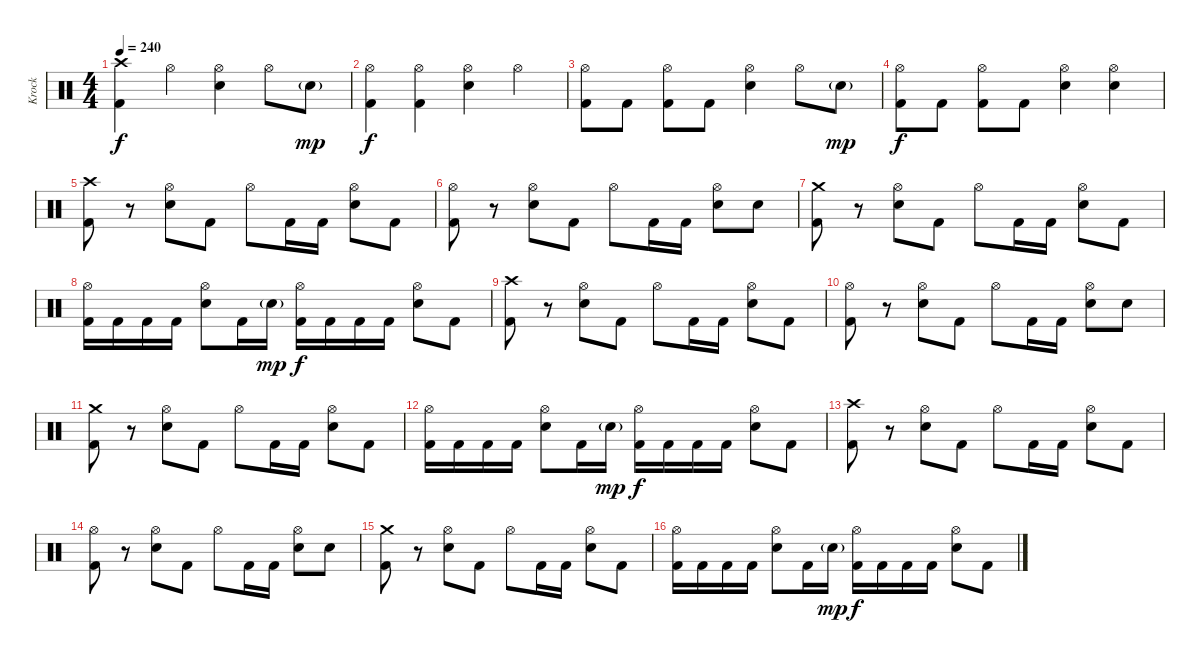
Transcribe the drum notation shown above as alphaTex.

\track ("Krock" "Krock") {instrument percussion}
\staff {score}
\articulation defaults
\ts (4 4)
\tempo 240
\clef neutral
\ks c
("Kick (hit) 2" "Crash high (hit)").4{dy f} "Hi-Hat (open)".4 ("Electric Snare (hit)" "Hi-Hat (open)").4 "Hi-Hat (open)".8 "Electric Snare (hit)"{g}.8{dy mp} |
("Kick (hit) 2" "Hi-Hat (open)").4{dy f} ("Kick (hit) 2" "Hi-Hat (open)").4 ("Electric Snare (hit)" "Hi-Hat (open)").4 "Hi-Hat (open)".4 |
("Kick (hit) 2" "Hi-Hat (open)").8 "Kick (hit) 2".8 ("Kick (hit) 2" "Hi-Hat (open)").8 "Kick (hit) 2".8 ("Electric Snare (hit)" "Hi-Hat (open)").4 "Hi-Hat (open)".8 "Electric Snare (hit)"{g}.8{dy mp} |
("Kick (hit) 2" "Hi-Hat (open)").8{dy f} "Kick (hit) 2".8 ("Kick (hit) 2" "Hi-Hat (open)").8 "Kick (hit) 2".8 ("Electric Snare (hit)" "Hi-Hat (open)").4 ("Electric Snare (hit)" "Hi-Hat (open)").4 |
("Kick (hit) 2" "Crash high (hit)").8 r.8 ("Electric Snare (hit)" "Hi-Hat (open)").8 "Kick (hit) 2".8 "Hi-Hat (open)".8 "Kick (hit) 2".16 "Kick (hit) 2".16 ("Electric Snare (hit)" "Hi-Hat (open)").8 "Kick (hit) 2".8 |
("Kick (hit) 2" "Hi-Hat (open)").8 r.8 ("Electric Snare (hit)" "Hi-Hat (open)").8 "Kick (hit) 2".8 "Hi-Hat (open)".8 "Kick (hit) 2".16 "Kick (hit) 2".16 ("Electric Snare (hit)" "Hi-Hat (open)").8 "Electric Snare (hit)".8 |
("Kick (hit) 2" "Crash medium (hit)").8 r.8 ("Electric Snare (hit)" "Hi-Hat (open)").8 "Kick (hit) 2".8 "Hi-Hat (open)".8 "Kick (hit) 2".16 "Kick (hit) 2".16 ("Electric Snare (hit)" "Hi-Hat (open)").8 "Kick (hit) 2".8 |
("Kick (hit) 2" "Hi-Hat (open)").16 "Kick (hit) 2".16 "Kick (hit) 2".16 "Kick (hit) 2".16 ("Electric Snare (hit)" "Hi-Hat (open)").8 "Kick (hit) 2".16 "Electric Snare (hit)"{g}.16{dy mp} ("Kick (hit) 2" "Hi-Hat (open)").16{dy f} "Kick (hit) 2".16 "Kick (hit) 2".16 "Kick (hit) 2".16 ("Electric Snare (hit)" "Hi-Hat (open)").8 "Kick (hit) 2".8 |
("Kick (hit) 2" "Crash high (hit)").8 r.8 ("Electric Snare (hit)" "Hi-Hat (open)").8 "Kick (hit) 2".8 "Hi-Hat (open)".8 "Kick (hit) 2".16 "Kick (hit) 2".16 ("Electric Snare (hit)" "Hi-Hat (open)").8 "Kick (hit) 2".8 |
("Kick (hit) 2" "Hi-Hat (open)").8 r.8 ("Electric Snare (hit)" "Hi-Hat (open)").8 "Kick (hit) 2".8 "Hi-Hat (open)".8 "Kick (hit) 2".16 "Kick (hit) 2".16 ("Electric Snare (hit)" "Hi-Hat (open)").8 "Electric Snare (hit)".8 |
("Kick (hit) 2" "Crash medium (hit)").8 r.8 ("Electric Snare (hit)" "Hi-Hat (open)").8 "Kick (hit) 2".8 "Hi-Hat (open)".8 "Kick (hit) 2".16 "Kick (hit) 2".16 ("Electric Snare (hit)" "Hi-Hat (open)").8 "Kick (hit) 2".8 |
("Kick (hit) 2" "Hi-Hat (open)").16 "Kick (hit) 2".16 "Kick (hit) 2".16 "Kick (hit) 2".16 ("Electric Snare (hit)" "Hi-Hat (open)").8 "Kick (hit) 2".16 "Electric Snare (hit)"{g}.16{dy mp} ("Kick (hit) 2" "Hi-Hat (open)").16{dy f} "Kick (hit) 2".16 "Kick (hit) 2".16 "Kick (hit) 2".16 ("Electric Snare (hit)" "Hi-Hat (open)").8 "Kick (hit) 2".8 |
("Kick (hit) 2" "Crash high (hit)").8 r.8 ("Electric Snare (hit)" "Hi-Hat (open)").8 "Kick (hit) 2".8 "Hi-Hat (open)".8 "Kick (hit) 2".16 "Kick (hit) 2".16 ("Electric Snare (hit)" "Hi-Hat (open)").8 "Kick (hit) 2".8 |
("Kick (hit) 2" "Hi-Hat (open)").8 r.8 ("Electric Snare (hit)" "Hi-Hat (open)").8 "Kick (hit) 2".8 "Hi-Hat (open)".8 "Kick (hit) 2".16 "Kick (hit) 2".16 ("Electric Snare (hit)" "Hi-Hat (open)").8 "Electric Snare (hit)".8 |
("Kick (hit) 2" "Crash medium (hit)").8 r.8 ("Electric Snare (hit)" "Hi-Hat (open)").8 "Kick (hit) 2".8 "Hi-Hat (open)".8 "Kick (hit) 2".16 "Kick (hit) 2".16 ("Electric Snare (hit)" "Hi-Hat (open)").8 "Kick (hit) 2".8 |
("Kick (hit) 2" "Hi-Hat (open)").16 "Kick (hit) 2".16 "Kick (hit) 2".16 "Kick (hit) 2".16 ("Electric Snare (hit)" "Hi-Hat (open)").8 "Kick (hit) 2".16 "Electric Snare (hit)"{g}.16{dy mp} ("Kick (hit) 2" "Hi-Hat (open)").16{dy f} "Kick (hit) 2".16 "Kick (hit) 2".16 "Kick (hit) 2".16 ("Electric Snare (hit)" "Hi-Hat (open)").8 "Kick (hit) 2".8
